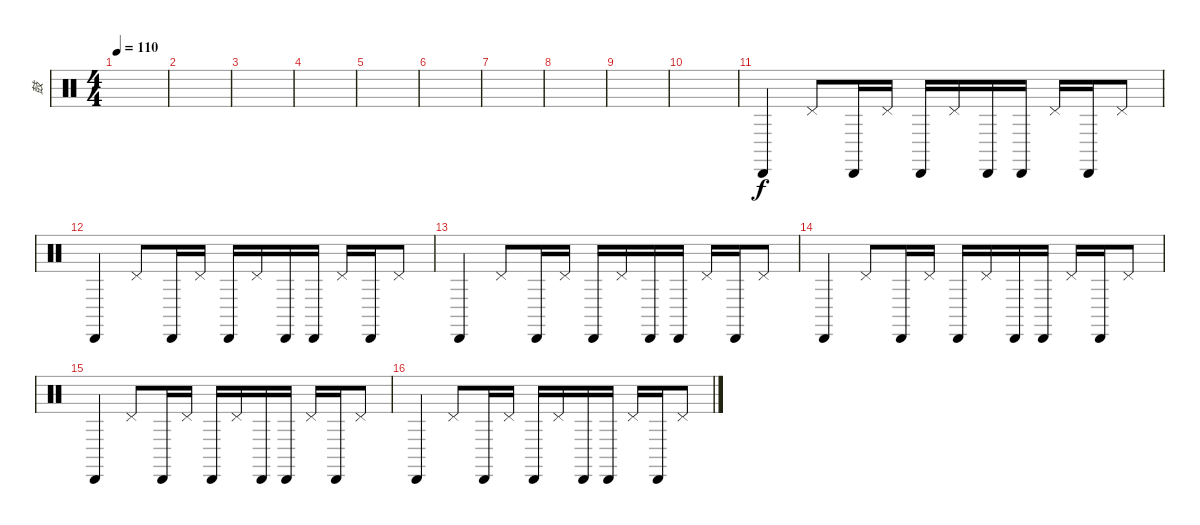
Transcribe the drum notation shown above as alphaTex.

\track ("鼓" "鼓") {instrument percussion}
\staff {score}
\articulation defaults
\ts (4 4)
\tempo 110
\clef neutral
\ks c
|
|
|
|
|
|
|
|
|
|
"Cabasa (hit)".4 "Pedal Hi-Hat (hit)".8 "Cabasa (hit)".16 "Pedal Hi-Hat (hit)".16 "Cabasa (hit)".16 "Pedal Hi-Hat (hit)".16 "Cabasa (hit)".16 "Cabasa (hit)".16 "Pedal Hi-Hat (hit)".16 "Cabasa (hit)".16 "Pedal Hi-Hat (hit)".8 |
"Cabasa (hit)".4 "Pedal Hi-Hat (hit)".8 "Cabasa (hit)".16 "Pedal Hi-Hat (hit)".16 "Cabasa (hit)".16 "Pedal Hi-Hat (hit)".16 "Cabasa (hit)".16 "Cabasa (hit)".16 "Pedal Hi-Hat (hit)".16 "Cabasa (hit)".16 "Pedal Hi-Hat (hit)".8 |
"Cabasa (hit)".4 "Pedal Hi-Hat (hit)".8 "Cabasa (hit)".16 "Pedal Hi-Hat (hit)".16 "Cabasa (hit)".16 "Pedal Hi-Hat (hit)".16 "Cabasa (hit)".16 "Cabasa (hit)".16 "Pedal Hi-Hat (hit)".16 "Cabasa (hit)".16 "Pedal Hi-Hat (hit)".8 |
"Cabasa (hit)".4 "Pedal Hi-Hat (hit)".8 "Cabasa (hit)".16 "Pedal Hi-Hat (hit)".16 "Cabasa (hit)".16 "Pedal Hi-Hat (hit)".16 "Cabasa (hit)".16 "Cabasa (hit)".16 "Pedal Hi-Hat (hit)".16 "Cabasa (hit)".16 "Pedal Hi-Hat (hit)".8 |
"Cabasa (hit)".4 "Pedal Hi-Hat (hit)".8 "Cabasa (hit)".16 "Pedal Hi-Hat (hit)".16 "Cabasa (hit)".16 "Pedal Hi-Hat (hit)".16 "Cabasa (hit)".16 "Cabasa (hit)".16 "Pedal Hi-Hat (hit)".16 "Cabasa (hit)".16 "Pedal Hi-Hat (hit)".8 |
"Cabasa (hit)".4 "Pedal Hi-Hat (hit)".8 "Cabasa (hit)".16 "Pedal Hi-Hat (hit)".16 "Cabasa (hit)".16 "Pedal Hi-Hat (hit)".16 "Cabasa (hit)".16 "Cabasa (hit)".16 "Pedal Hi-Hat (hit)".16 "Cabasa (hit)".16 "Pedal Hi-Hat (hit)".8
